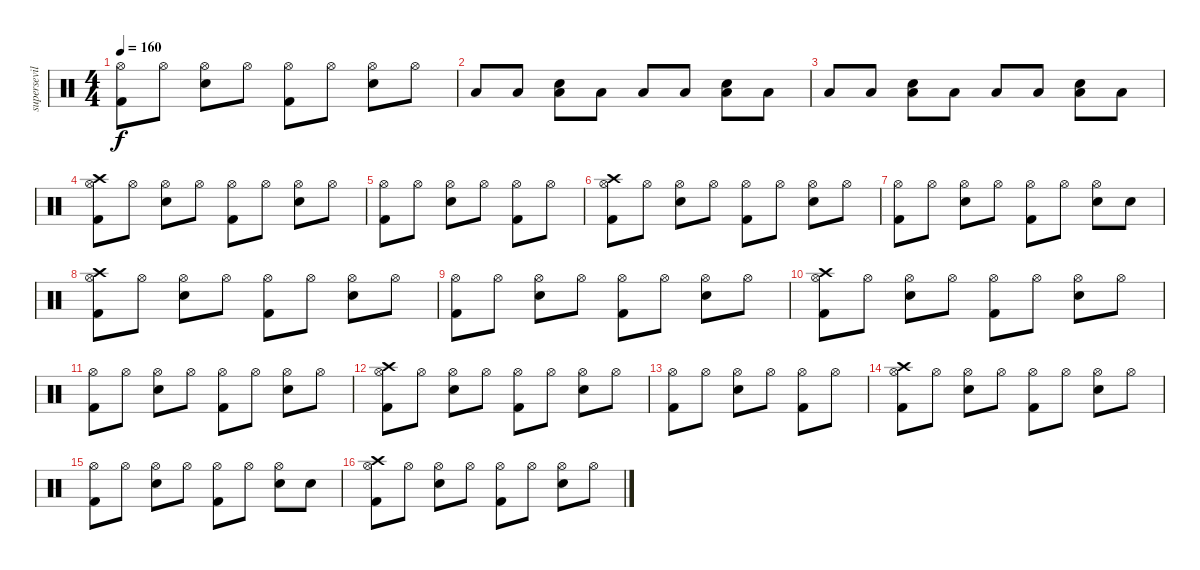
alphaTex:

\track ("supersevilla" "supersevil") {instrument percussion}
\staff {score}
\articulation defaults
\ts (4 4)
\tempo 160
\clef neutral
\ks c
("Hi-Hat (open)" "Kick (hit) 2").8{dy f} "Hi-Hat (open)".8 ("Hi-Hat (open)" "Electric Snare (hit)").8 "Hi-Hat (open)".8 ("Hi-Hat (open)" "Kick (hit) 2").8 "Hi-Hat (open)".8 ("Hi-Hat (open)" "Electric Snare (hit)").8 "Hi-Hat (open)".8 |
"Low Floor Tom (hit)".8 "Low Floor Tom (hit)".8 ("Low Floor Tom (hit)" "Electric Snare (hit)").8 "Low Floor Tom (hit)".8 "Low Floor Tom (hit)".8 "Low Floor Tom (hit)".8 ("Low Floor Tom (hit)" "Electric Snare (hit)").8 "Low Floor Tom (hit)".8 |
"Low Floor Tom (hit)".8 "Low Floor Tom (hit)".8 ("Low Floor Tom (hit)" "Electric Snare (hit)").8 "Low Floor Tom (hit)".8 "Low Floor Tom (hit)".8 "Low Floor Tom (hit)".8 ("Low Floor Tom (hit)" "Electric Snare (hit)").8 "Low Floor Tom (hit)".8 |
("Hi-Hat (open)" "Kick (hit) 2" "Crash high (hit)").8 "Hi-Hat (open)".8 ("Hi-Hat (open)" "Electric Snare (hit)").8 "Hi-Hat (open)".8 ("Hi-Hat (open)" "Kick (hit) 2").8 "Hi-Hat (open)".8 ("Hi-Hat (open)" "Electric Snare (hit)").8 "Hi-Hat (open)".8 |
("Hi-Hat (open)" "Kick (hit) 2").8 "Hi-Hat (open)".8 ("Hi-Hat (open)" "Electric Snare (hit)").8 "Hi-Hat (open)".8 ("Hi-Hat (open)" "Kick (hit) 2").8 "Hi-Hat (open)".8 |
("Hi-Hat (open)" "Kick (hit) 2" "Crash high (hit)").8 "Hi-Hat (open)".8 ("Hi-Hat (open)" "Electric Snare (hit)").8 "Hi-Hat (open)".8 ("Hi-Hat (open)" "Kick (hit) 2").8 "Hi-Hat (open)".8 ("Hi-Hat (open)" "Electric Snare (hit)").8 "Hi-Hat (open)".8 |
("Hi-Hat (open)" "Kick (hit) 2").8 "Hi-Hat (open)".8 ("Hi-Hat (open)" "Electric Snare (hit)").8 "Hi-Hat (open)".8 ("Hi-Hat (open)" "Kick (hit) 2").8 "Hi-Hat (open)".8 ("Hi-Hat (open)" "Electric Snare (hit)").8 "Electric Snare (hit)".8 |
("Hi-Hat (open)" "Kick (hit) 2" "Crash high (hit)").8 "Hi-Hat (open)".8 ("Hi-Hat (open)" "Electric Snare (hit)").8 "Hi-Hat (open)".8 ("Hi-Hat (open)" "Kick (hit) 2").8 "Hi-Hat (open)".8 ("Hi-Hat (open)" "Electric Snare (hit)").8 "Hi-Hat (open)".8 |
("Hi-Hat (open)" "Kick (hit) 2").8 "Hi-Hat (open)".8 ("Hi-Hat (open)" "Electric Snare (hit)").8 "Hi-Hat (open)".8 ("Hi-Hat (open)" "Kick (hit) 2").8 "Hi-Hat (open)".8 ("Hi-Hat (open)" "Electric Snare (hit)").8 "Hi-Hat (open)".8 |
("Hi-Hat (open)" "Kick (hit) 2" "Crash high (hit)").8 "Hi-Hat (open)".8 ("Hi-Hat (open)" "Electric Snare (hit)").8 "Hi-Hat (open)".8 ("Hi-Hat (open)" "Kick (hit) 2").8 "Hi-Hat (open)".8 ("Hi-Hat (open)" "Electric Snare (hit)").8 "Hi-Hat (open)".8 |
("Hi-Hat (open)" "Kick (hit) 2").8 "Hi-Hat (open)".8 ("Hi-Hat (open)" "Electric Snare (hit)").8 "Hi-Hat (open)".8 ("Hi-Hat (open)" "Kick (hit) 2").8 "Hi-Hat (open)".8 ("Hi-Hat (open)" "Electric Snare (hit)").8 "Hi-Hat (open)".8 |
("Hi-Hat (open)" "Kick (hit) 2" "Crash high (hit)").8 "Hi-Hat (open)".8 ("Hi-Hat (open)" "Electric Snare (hit)").8 "Hi-Hat (open)".8 ("Hi-Hat (open)" "Kick (hit) 2").8 "Hi-Hat (open)".8 ("Hi-Hat (open)" "Electric Snare (hit)").8 "Hi-Hat (open)".8 |
("Hi-Hat (open)" "Kick (hit) 2").8 "Hi-Hat (open)".8 ("Hi-Hat (open)" "Electric Snare (hit)").8 "Hi-Hat (open)".8 ("Hi-Hat (open)" "Kick (hit) 2").8 "Hi-Hat (open)".8 |
("Hi-Hat (open)" "Kick (hit) 2" "Crash high (hit)").8 "Hi-Hat (open)".8 ("Hi-Hat (open)" "Electric Snare (hit)").8 "Hi-Hat (open)".8 ("Hi-Hat (open)" "Kick (hit) 2").8 "Hi-Hat (open)".8 ("Hi-Hat (open)" "Electric Snare (hit)").8 "Hi-Hat (open)".8 |
("Hi-Hat (open)" "Kick (hit) 2").8 "Hi-Hat (open)".8 ("Hi-Hat (open)" "Electric Snare (hit)").8 "Hi-Hat (open)".8 ("Hi-Hat (open)" "Kick (hit) 2").8 "Hi-Hat (open)".8 ("Hi-Hat (open)" "Electric Snare (hit)").8 "Electric Snare (hit)".8 |
("Hi-Hat (open)" "Kick (hit) 2" "Crash high (hit)").8 "Hi-Hat (open)".8 ("Hi-Hat (open)" "Electric Snare (hit)").8 "Hi-Hat (open)".8 ("Hi-Hat (open)" "Kick (hit) 2").8 "Hi-Hat (open)".8 ("Hi-Hat (open)" "Electric Snare (hit)").8 "Hi-Hat (open)".8
